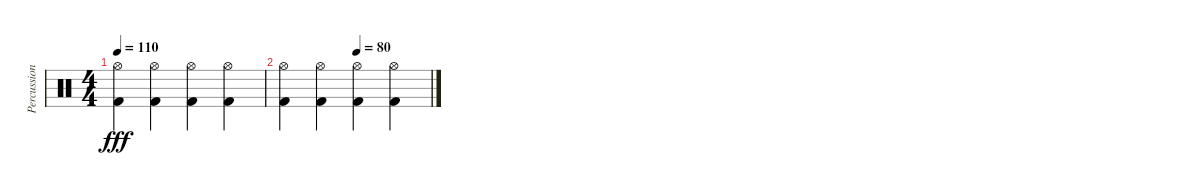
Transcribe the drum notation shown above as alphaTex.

\track ("Percussion" "Percussion") {instrument percussion}
\staff {score}
\articulation defaults
\ts (4 4)
\tempo 110
\clef neutral
\ks c
("Hi-Hat (open)" "Kick (hit) 2").4{dy fff} ("Hi-Hat (open)" "Kick (hit) 2").4 ("Hi-Hat (open)" "Kick (hit) 2").4 ("Hi-Hat (open)" "Kick (hit) 2").4 |
\tempo (80 0.5)
("Hi-Hat (open)" "Kick (hit) 2").4 ("Hi-Hat (open)" "Kick (hit) 2").4 ("Hi-Hat (open)" "Kick (hit) 2").4 ("Hi-Hat (open)" "Kick (hit) 2").4
